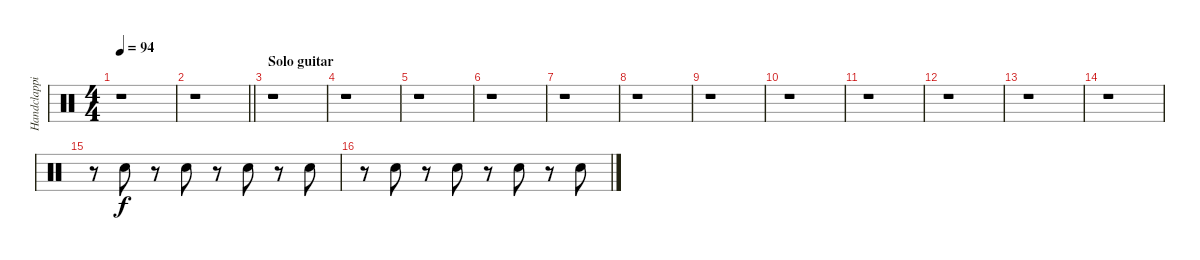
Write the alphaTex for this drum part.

\track ("Handclapping" "Handclappi") {instrument percussion}
\staff {score}
\articulation defaults
\ts (4 4)
\tempo 94
\clef neutral
\ks c
r.1{dy f} |
\barLineRight lightlight
r.1 |
\section ("" "Solo guitar")
r.1 |
r.1 |
r.1 |
r.1 |
r.1 |
r.1 |
r.1 |
r.1 |
r.1 |
r.1 |
r.1 |
r.1 |
r.8 "Hand Clap (hit)".8 r.8 "Hand Clap (hit)".8 r.8 "Hand Clap (hit)".8 r.8 "Hand Clap (hit)".8 |
r.8 "Hand Clap (hit)".8 r.8 "Hand Clap (hit)".8 r.8 "Hand Clap (hit)".8 r.8 "Hand Clap (hit)".8
